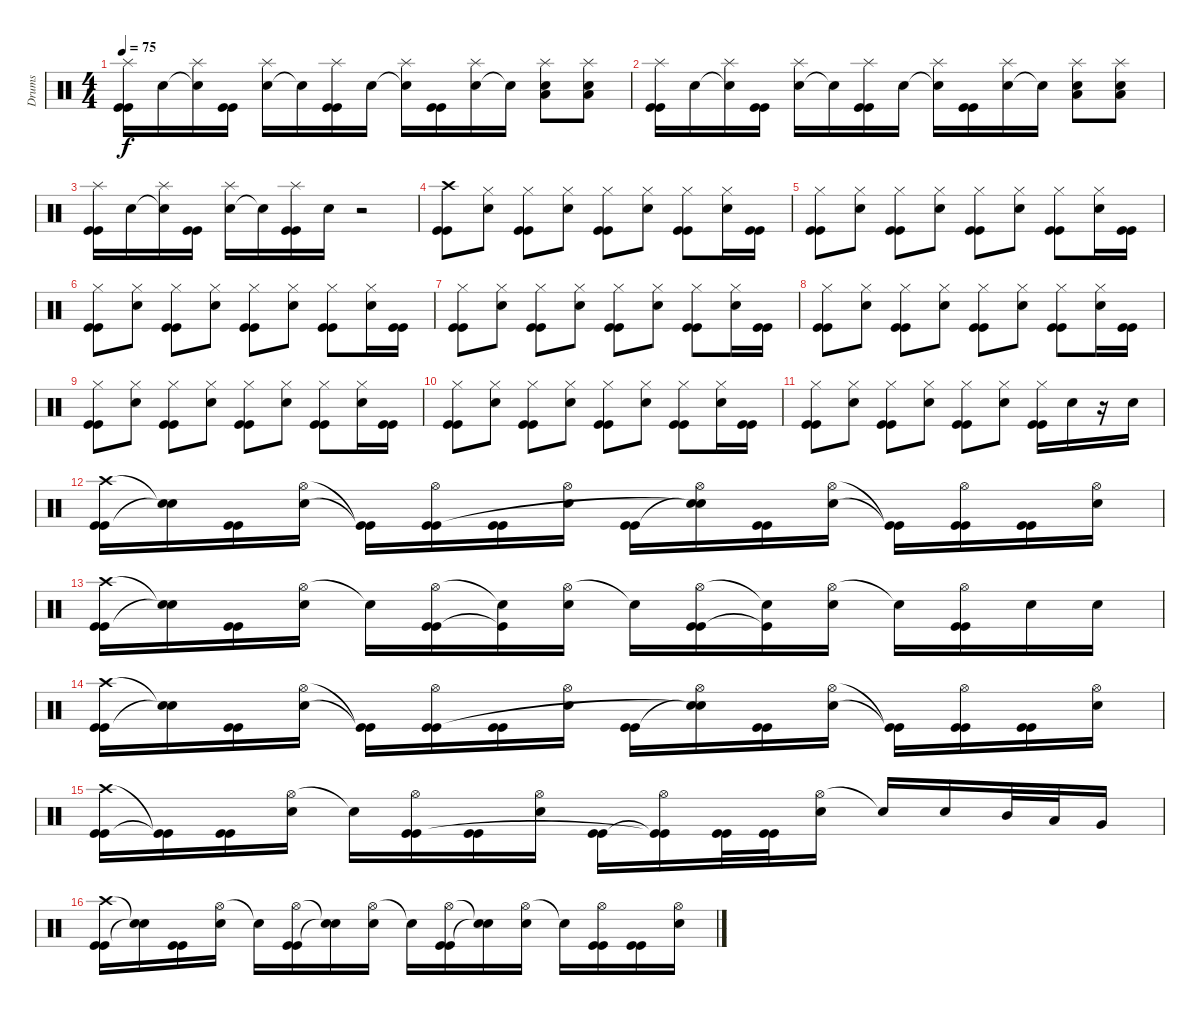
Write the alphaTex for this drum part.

\track ("Drums" "Drums") {instrument percussion}
\staff {score}
\articulation defaults
\ts (4 4)
\tempo 75
\clef neutral
\ks c
("Kick (hit)" "Kick (hit)" "Splash (hit)").16{dy f} "Snare (hit) 2".16 ("Snare (hit)"{t} "Splash (hit)").16 ("Kick (hit)" "Kick (hit)").16 ("Snare (hit) 2" "Splash (hit)").16 "Snare (hit)"{t}.16 ("Kick (hit)" "Kick (hit)" "Splash (hit)").16 "Snare (hit) 2".16 ("Snare (hit)"{t} "Splash (hit)").16 ("Kick (hit)" "Kick (hit)").16 ("Snare (hit) 2" "Splash (hit)").16 "Snare (hit)"{t}.16 ("Low Floor Tom (hit)" "Snare (hit) 2" "Splash (hit)").8 ("Low Floor Tom (hit)" "Snare (hit) 2" "Splash (hit)").8 |
("Kick (hit)" "Kick (hit)" "Splash (hit)").16 "Snare (hit) 2".16 ("Snare (hit)"{t} "Splash (hit)").16 ("Kick (hit)" "Kick (hit)").16 ("Snare (hit) 2" "Splash (hit)").16 "Snare (hit)"{t}.16 ("Kick (hit)" "Kick (hit)" "Splash (hit)").16 "Snare (hit) 2".16 ("Snare (hit)"{t} "Splash (hit)").16 ("Kick (hit)" "Kick (hit)").16 ("Snare (hit) 2" "Splash (hit)").16 "Snare (hit)"{t}.16 ("Low Floor Tom (hit)" "Snare (hit) 2" "Splash (hit)").8 ("Low Floor Tom (hit)" "Snare (hit) 2" "Splash (hit)").8 |
("Kick (hit)" "Kick (hit)" "Splash (hit)").16 "Snare (hit) 2".16 ("Snare (hit)"{t} "Splash (hit)").16 ("Kick (hit)" "Kick (hit)").16 ("Snare (hit) 2" "Splash (hit)").16 "Snare (hit)"{t}.16 ("Kick (hit)" "Kick (hit)" "Splash (hit)").16 "Snare (hit) 2".16 r.2 |
("Crash high (hit)" "Kick (hit)" "Kick (hit)").8 ("Hi-Hat (closed)" "Snare (hit) 2").8 ("Hi-Hat (closed)" "Kick (hit)" "Kick (hit)").8 ("Hi-Hat (closed)" "Snare (hit) 2").8 ("Hi-Hat (closed)" "Kick (hit)" "Kick (hit)").8 ("Hi-Hat (closed)" "Snare (hit) 2").8 ("Hi-Hat (closed)" "Kick (hit)" "Kick (hit)").8 ("Hi-Hat (closed)" "Snare (hit) 2").16 ("Kick (hit)" "Kick (hit)").16 |
("Hi-Hat (closed)" "Kick (hit)" "Kick (hit)").8 ("Hi-Hat (closed)" "Snare (hit) 2").8 ("Hi-Hat (closed)" "Kick (hit)" "Kick (hit)").8 ("Hi-Hat (closed)" "Snare (hit) 2").8 ("Hi-Hat (closed)" "Kick (hit)" "Kick (hit)").8 ("Hi-Hat (closed)" "Snare (hit) 2").8 ("Hi-Hat (closed)" "Kick (hit)" "Kick (hit)").8 ("Hi-Hat (closed)" "Snare (hit) 2").16 ("Kick (hit)" "Kick (hit)").16 |
("Hi-Hat (closed)" "Kick (hit)" "Kick (hit)").8 ("Hi-Hat (closed)" "Snare (hit) 2").8 ("Hi-Hat (closed)" "Kick (hit)" "Kick (hit)").8 ("Hi-Hat (closed)" "Snare (hit) 2").8 ("Hi-Hat (closed)" "Kick (hit)" "Kick (hit)").8 ("Hi-Hat (closed)" "Snare (hit) 2").8 ("Hi-Hat (closed)" "Kick (hit)" "Kick (hit)").8 ("Hi-Hat (closed)" "Snare (hit) 2").16 ("Kick (hit)" "Kick (hit)").16 |
("Hi-Hat (closed)" "Kick (hit)" "Kick (hit)").8 ("Hi-Hat (closed)" "Snare (hit) 2").8 ("Hi-Hat (closed)" "Kick (hit)" "Kick (hit)").8 ("Hi-Hat (closed)" "Snare (hit) 2").8 ("Hi-Hat (closed)" "Kick (hit)" "Kick (hit)").8 ("Hi-Hat (closed)" "Snare (hit) 2").8 ("Hi-Hat (closed)" "Kick (hit)" "Kick (hit)").8 ("Hi-Hat (closed)" "Snare (hit) 2").16 ("Kick (hit)" "Kick (hit)").16 |
("Hi-Hat (closed)" "Kick (hit)" "Kick (hit)").8 ("Hi-Hat (closed)" "Snare (hit) 2").8 ("Hi-Hat (closed)" "Kick (hit)" "Kick (hit)").8 ("Hi-Hat (closed)" "Snare (hit) 2").8 ("Hi-Hat (closed)" "Kick (hit)" "Kick (hit)").8 ("Hi-Hat (closed)" "Snare (hit) 2").8 ("Hi-Hat (closed)" "Kick (hit)" "Kick (hit)").8 ("Hi-Hat (closed)" "Snare (hit) 2").16 ("Kick (hit)" "Kick (hit)").16 |
("Hi-Hat (closed)" "Kick (hit)" "Kick (hit)").8 ("Hi-Hat (closed)" "Snare (hit) 2").8 ("Hi-Hat (closed)" "Kick (hit)" "Kick (hit)").8 ("Hi-Hat (closed)" "Snare (hit) 2").8 ("Hi-Hat (closed)" "Kick (hit)" "Kick (hit)").8 ("Hi-Hat (closed)" "Snare (hit) 2").8 ("Hi-Hat (closed)" "Kick (hit)" "Kick (hit)").8 ("Hi-Hat (closed)" "Snare (hit) 2").16 ("Kick (hit)" "Kick (hit)").16 |
("Hi-Hat (closed)" "Kick (hit)" "Kick (hit)").8 ("Hi-Hat (closed)" "Snare (hit) 2").8 ("Hi-Hat (closed)" "Kick (hit)" "Kick (hit)").8 ("Hi-Hat (closed)" "Snare (hit) 2").8 ("Hi-Hat (closed)" "Kick (hit)" "Kick (hit)").8 ("Hi-Hat (closed)" "Snare (hit) 2").8 ("Hi-Hat (closed)" "Kick (hit)" "Kick (hit)").8 ("Hi-Hat (closed)" "Snare (hit) 2").16 ("Kick (hit)" "Kick (hit)").16 |
("Hi-Hat (closed)" "Kick (hit)" "Kick (hit)").8 ("Hi-Hat (closed)" "Snare (hit) 2").8 ("Hi-Hat (closed)" "Kick (hit)" "Kick (hit)").8 ("Hi-Hat (closed)" "Snare (hit) 2").8 ("Hi-Hat (closed)" "Kick (hit)" "Kick (hit)").8 ("Hi-Hat (closed)" "Snare (hit) 2").8 ("Hi-Hat (closed)" "Kick (hit)" "Kick (hit)").16 "Snare (hit) 2".16 r.16 "Snare (hit) 2".16 |
("Crash high (hit)" "Kick (hit)" "Kick (hit)").16 ("Snare (hit)"{t} "Snare (hit)"{t}).16 ("Kick (hit)" "Kick (hit)").16 ("Hi-Hat (open)" "Snare (hit) 2").16 ("Kick (hit)"{t} "Kick (hit)"{t}).16 ("Hi-Hat (open)" "Kick (hit)" "Kick (hit)").16 ("Kick (hit)" "Kick (hit)").16 ("Hi-Hat (open)" "Snare (hit) 2").16 ("Kick (hit)" "Kick (hit)").16 ("Hi-Hat (open)" "Snare (hit)"{t} "Snare (hit)"{t}).16 ("Kick (hit)" "Kick (hit)").16 ("Hi-Hat (open)" "Snare (hit) 2").16 ("Kick (hit)"{t} "Kick (hit)"{t}).16 ("Hi-Hat (open)" "Kick (hit)" "Kick (hit)").16 ("Kick (hit)" "Kick (hit)").16 ("Hi-Hat (open)" "Snare (hit) 2").16 |
("Crash high (hit)" "Kick (hit)" "Kick (hit)").16 ("Snare (hit)"{t} "Snare (hit)"{t}).16 ("Kick (hit)" "Kick (hit)").16 ("Hi-Hat (open)" "Snare (hit) 2").16 "Snare (hit)"{t}.16 ("Hi-Hat (open)" "Kick (hit)" "Kick (hit)").16 ("Snare (hit)"{t} "Kick (hit)"{t}).16 ("Hi-Hat (open)" "Snare (hit) 2").16 "Snare (hit)"{t}.16 ("Hi-Hat (open)" "Kick (hit)" "Kick (hit)").16 ("Snare (hit)"{t} "Kick (hit)"{t}).16 ("Hi-Hat (open)" "Snare (hit) 2").16 "Snare (hit)"{t}.16 ("Hi-Hat (open)" "Kick (hit)" "Kick (hit)").16 "Snare (hit) 2".16 "Snare (hit) 2".16 |
("Crash high (hit)" "Kick (hit)" "Kick (hit)").16 ("Snare (hit)"{t} "Snare (hit)"{t}).16 ("Kick (hit)" "Kick (hit)").16 ("Hi-Hat (open)" "Snare (hit) 2").16 ("Kick (hit)"{t} "Kick (hit)"{t}).16 ("Hi-Hat (open)" "Kick (hit)" "Kick (hit)").16 ("Kick (hit)" "Kick (hit)").16 ("Hi-Hat (open)" "Snare (hit) 2").16 ("Kick (hit)" "Kick (hit)").16 ("Hi-Hat (open)" "Snare (hit)"{t} "Snare (hit)"{t}).16 ("Kick (hit)" "Kick (hit)").16 ("Hi-Hat (open)" "Snare (hit) 2").16 ("Kick (hit)"{t} "Kick (hit)"{t}).16 ("Hi-Hat (open)" "Kick (hit)" "Kick (hit)").16 ("Kick (hit)" "Kick (hit)").16 ("Hi-Hat (open)" "Snare (hit) 2").16 |
("Crash high (hit)" "Kick (hit)" "Kick (hit)").16 ("Kick (hit)"{t} "Kick (hit)"{t}).16 ("Kick (hit)" "Kick (hit)").16 ("Hi-Hat (open)" "Snare (hit) 2").16 "Snare (hit)"{t}.16 ("Hi-Hat (open)" "Kick (hit)" "Kick (hit)").16 ("Kick (hit)" "Kick (hit)").16 ("Hi-Hat (open)" "Snare (hit) 2").16 ("Kick (hit)" "Kick (hit)").16 ("Hi-Hat (open)" "Kick (hit)"{t} "Kick (hit)"{t}).16 ("Kick (hit)" "Kick (hit)").32 ("Kick (hit)" "Kick (hit)").32 ("Hi-Hat (open)" "Snare (hit) 2").16 "Snare (hit)"{t}.16 "Snare (hit) 2".16 "Mid Tom (hit)".32 "Low Tom (hit)".32 "Very Low Tom (hit)".16 |
("Crash high (hit)" "Kick (hit)" "Kick (hit)").16 ("Snare (hit)"{t} "Snare (hit)"{t}).16 ("Kick (hit)" "Kick (hit)").16 ("Hi-Hat (open)" "Snare (hit) 2").16 "Snare (hit)"{t}.16 ("Hi-Hat (open)" "Kick (hit)" "Kick (hit)").16 ("Snare (hit)"{t} "Snare (hit)"{t}).16 ("Hi-Hat (open)" "Snare (hit) 2").16 "Snare (hit)"{t}.16 ("Hi-Hat (open)" "Kick (hit)" "Kick (hit)").16 ("Snare (hit)"{t} "Snare (hit)"{t}).16 ("Hi-Hat (open)" "Snare (hit) 2").16 "Snare (hit)"{t}.16 ("Hi-Hat (open)" "Kick (hit)" "Kick (hit)").16 ("Kick (hit)" "Kick (hit)").16 ("Hi-Hat (open)" "Snare (hit) 2").16
